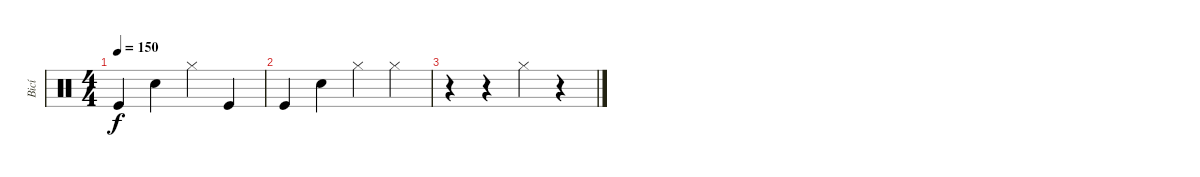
\track ("Bicí" "Bicí") {instrument percussion}
\staff {score}
\articulation defaults
\ts (4 4)
\tempo 150
\clef neutral
\ks c "Kick (hit)".4{dy f} "Snare (hit)"{x}.4 "Hi-Hat (closed)".4 "Kick (hit)".4
|
"Kick (hit)".4 "Snare (hit)"{x}.4 "Hi-Hat (closed)".4 "Hi-Hat (closed)".4 |
r.4 r.4 "Hi-Hat (closed)".4 r.4
